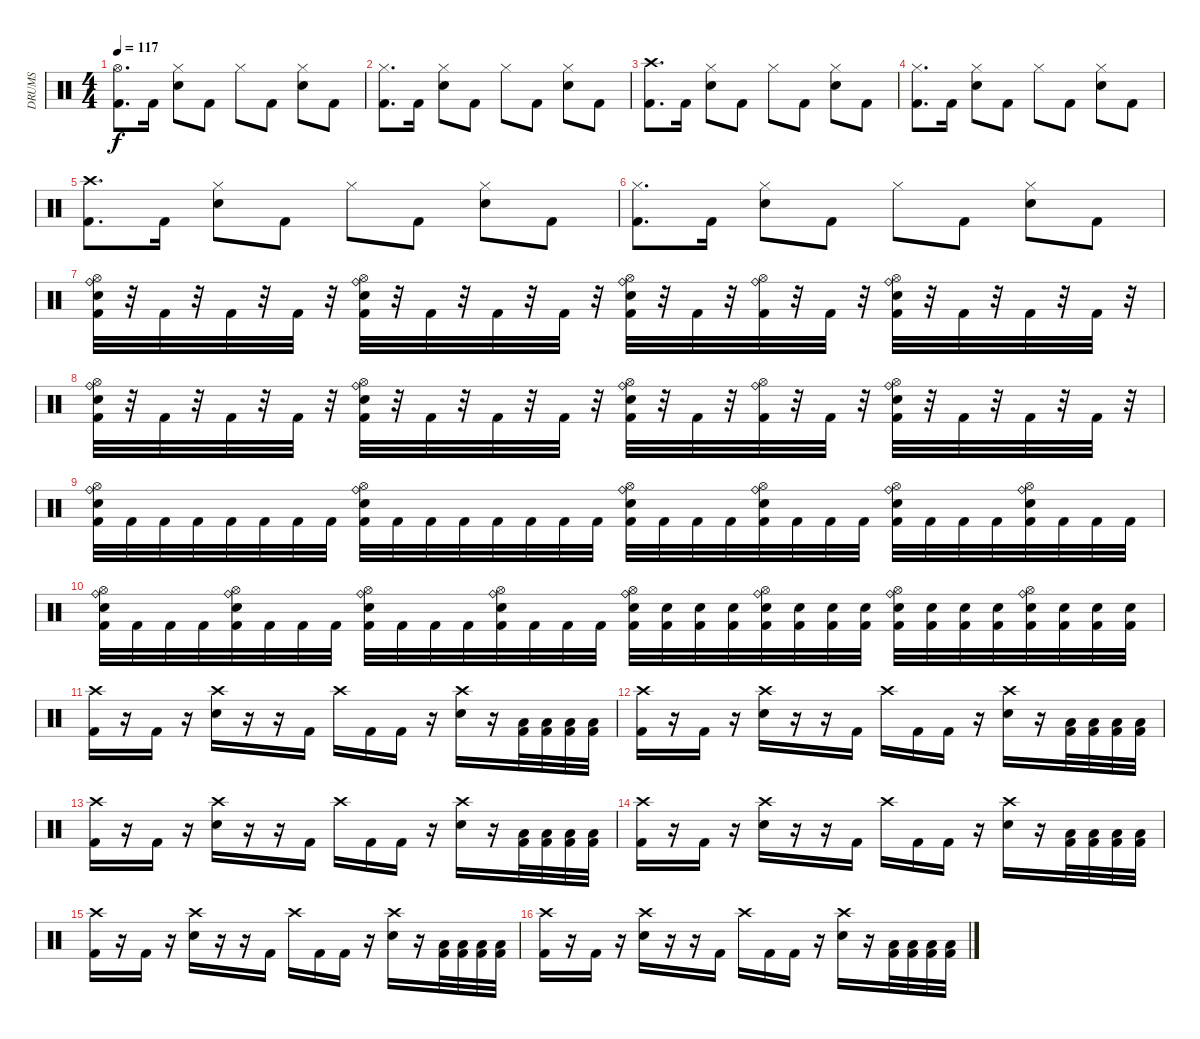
\track ("DRUMS" "DRUMS") {instrument percussion}
\staff {score}
\articulation defaults
\ts (4 4)
\tempo 117
\clef neutral
\ks c
("Kick (hit) 2" "Hi-Hat (open)").8{d dy f} "Kick (hit) 2".16 ("Electric Snare (hit)" "Hi-Hat (closed)").8 "Kick (hit) 2".8 "Hi-Hat (closed)".8 "Kick (hit) 2".8 ("Electric Snare (hit)" "Hi-Hat (closed)").8 "Kick (hit) 2".8 |
("Kick (hit) 2" "Hi-Hat (closed)").8{d} "Kick (hit) 2".16 ("Electric Snare (hit)" "Hi-Hat (closed)").8 "Kick (hit) 2".8 "Hi-Hat (closed)".8 "Kick (hit) 2".8 ("Electric Snare (hit)" "Hi-Hat (closed)").8 "Kick (hit) 2".8 |
("Kick (hit) 2" "Crash high (hit)").8{d} "Kick (hit) 2".16 ("Electric Snare (hit)" "Hi-Hat (closed)").8 "Kick (hit) 2".8 "Hi-Hat (closed)".8 "Kick (hit) 2".8 ("Electric Snare (hit)" "Hi-Hat (closed)").8 "Kick (hit) 2".8 |
("Kick (hit) 2" "Hi-Hat (closed)").8{d} "Kick (hit) 2".16 ("Electric Snare (hit)" "Hi-Hat (closed)").8 "Kick (hit) 2".8 "Hi-Hat (closed)".8 "Kick (hit) 2".8 ("Electric Snare (hit)" "Hi-Hat (closed)").8 "Kick (hit) 2".8 |
("Kick (hit) 2" "Crash high (hit)").8{d} "Kick (hit) 2".16 ("Electric Snare (hit)" "Hi-Hat (closed)").8 "Kick (hit) 2".8 "Hi-Hat (closed)".8 "Kick (hit) 2".8 ("Electric Snare (hit)" "Hi-Hat (closed)").8 "Kick (hit) 2".8 |
("Kick (hit) 2" "Hi-Hat (closed)").8{d} "Kick (hit) 2".16 ("Electric Snare (hit)" "Hi-Hat (closed)").8 "Kick (hit) 2".8 "Hi-Hat (closed)".8 "Kick (hit) 2".8 ("Electric Snare (hit)" "Hi-Hat (closed)").8 "Kick (hit) 2".8 |
("Hi-Hat (open)" "Ride (bell)" "Kick (hit) 2" "Electric Snare (hit)").32 r.32 "Kick (hit) 2".32 r.32 "Kick (hit) 2".32 r.32 "Kick (hit) 2".32 r.32 ("Hi-Hat (open)" "Ride (bell)" "Kick (hit) 2" "Electric Snare (hit)").32 r.32 "Kick (hit) 2".32 r.32 "Kick (hit) 2".32 r.32 "Kick (hit) 2".32 r.32 ("Hi-Hat (open)" "Ride (bell)" "Kick (hit) 2" "Electric Snare (hit)").32 r.32 "Kick (hit) 2".32 r.32 ("Hi-Hat (open)" "Ride (bell)" "Kick (hit) 2").32 r.32 "Kick (hit) 2".32 r.32 ("Hi-Hat (open)" "Ride (bell)" "Kick (hit) 2" "Electric Snare (hit)").32 r.32 "Kick (hit) 2".32 r.32 "Kick (hit) 2".32 r.32 "Kick (hit) 2".32 r.32 |
("Hi-Hat (open)" "Ride (bell)" "Kick (hit) 2" "Electric Snare (hit)").32 r.32 "Kick (hit) 2".32 r.32 "Kick (hit) 2".32 r.32 "Kick (hit) 2".32 r.32 ("Hi-Hat (open)" "Ride (bell)" "Kick (hit) 2" "Electric Snare (hit)").32 r.32 "Kick (hit) 2".32 r.32 "Kick (hit) 2".32 r.32 "Kick (hit) 2".32 r.32 ("Hi-Hat (open)" "Ride (bell)" "Kick (hit) 2" "Electric Snare (hit)").32 r.32 "Kick (hit) 2".32 r.32 ("Hi-Hat (open)" "Ride (bell)" "Kick (hit) 2").32 r.32 "Kick (hit) 2".32 r.32 ("Hi-Hat (open)" "Ride (bell)" "Kick (hit) 2" "Electric Snare (hit)").32 r.32 "Kick (hit) 2".32 r.32 "Kick (hit) 2".32 r.32 "Kick (hit) 2".32 r.32 |
("Hi-Hat (open)" "Ride (bell)" "Kick (hit) 2" "Electric Snare (hit)").32 "Kick (hit) 2".32 "Kick (hit) 2".32 "Kick (hit) 2".32 "Kick (hit) 2".32 "Kick (hit) 2".32 "Kick (hit) 2".32 "Kick (hit) 2".32 ("Hi-Hat (open)" "Ride (bell)" "Kick (hit) 2" "Electric Snare (hit)").32 "Kick (hit) 2".32 "Kick (hit) 2".32 "Kick (hit) 2".32 "Kick (hit) 2".32 "Kick (hit) 2".32 "Kick (hit) 2".32 "Kick (hit) 2".32 ("Hi-Hat (open)" "Ride (bell)" "Kick (hit) 2" "Electric Snare (hit)").32 "Kick (hit) 2".32 "Kick (hit) 2".32 "Kick (hit) 2".32 ("Hi-Hat (open)" "Ride (bell)" "Kick (hit) 2" "Electric Snare (hit)").32 "Kick (hit) 2".32 "Kick (hit) 2".32 "Kick (hit) 2".32 ("Hi-Hat (open)" "Ride (bell)" "Kick (hit) 2" "Electric Snare (hit)").32 "Kick (hit) 2".32 "Kick (hit) 2".32 "Kick (hit) 2".32 ("Hi-Hat (open)" "Ride (bell)" "Kick (hit) 2" "Electric Snare (hit)").32 "Kick (hit) 2".32 "Kick (hit) 2".32 "Kick (hit) 2".32 |
("Hi-Hat (open)" "Ride (bell)" "Kick (hit) 2" "Electric Snare (hit)").32 "Kick (hit) 2".32 "Kick (hit) 2".32 "Kick (hit) 2".32 ("Hi-Hat (open)" "Ride (bell)" "Kick (hit) 2" "Electric Snare (hit)").32 "Kick (hit) 2".32 "Kick (hit) 2".32 "Kick (hit) 2".32 ("Hi-Hat (open)" "Ride (bell)" "Kick (hit) 2" "Electric Snare (hit)").32 "Kick (hit) 2".32 "Kick (hit) 2".32 "Kick (hit) 2".32 ("Hi-Hat (open)" "Ride (bell)" "Kick (hit) 2" "Electric Snare (hit)").32 "Kick (hit) 2".32 "Kick (hit) 2".32 "Kick (hit) 2".32 ("Hi-Hat (open)" "Ride (bell)" "Kick (hit) 2" "Electric Snare (hit)").32 ("Kick (hit) 2" "Electric Snare (hit)").32 ("Kick (hit) 2" "Electric Snare (hit)").32 ("Kick (hit) 2" "Electric Snare (hit)").32 ("Hi-Hat (open)" "Ride (bell)" "Kick (hit) 2" "Electric Snare (hit)").32 ("Kick (hit) 2" "Electric Snare (hit)").32 ("Kick (hit) 2" "Electric Snare (hit)").32 ("Kick (hit) 2" "Electric Snare (hit)").32 ("Hi-Hat (open)" "Ride (bell)" "Kick (hit) 2" "Electric Snare (hit)").32 ("Kick (hit) 2" "Electric Snare (hit)").32 ("Kick (hit) 2" "Electric Snare (hit)").32 ("Kick (hit) 2" "Electric Snare (hit)").32 ("Hi-Hat (open)" "Ride (bell)" "Kick (hit) 2" "Electric Snare (hit)").32 ("Kick (hit) 2" "Electric Snare (hit)").32 ("Kick (hit) 2" "Electric Snare (hit)").32 ("Kick (hit) 2" "Electric Snare (hit)").32 |
("Crash high (hit)" "Kick (hit) 2").16 r.16 "Kick (hit) 2".16 r.16 ("Crash high (hit)" "Electric Snare (hit)").16 r.16 r.16 "Kick (hit) 2".16 "Crash high (hit)".16 "Kick (hit) 2".16 "Kick (hit) 2".16 r.16 ("Crash high (hit)" "Electric Snare (hit)").16 r.16 ("Low Tom (hit)" "Kick (hit) 2").32 ("Low Tom (hit)" "Kick (hit) 2").32 ("Low Tom (hit)" "Kick (hit) 2").32 ("Low Tom (hit)" "Kick (hit) 2").32 |
("Crash high (hit)" "Kick (hit) 2").16 r.16 "Kick (hit) 2".16 r.16 ("Crash high (hit)" "Electric Snare (hit)").16 r.16 r.16 "Kick (hit) 2".16 "Crash high (hit)".16 "Kick (hit) 2".16 "Kick (hit) 2".16 r.16 ("Crash high (hit)" "Electric Snare (hit)").16 r.16 ("Low Tom (hit)" "Kick (hit) 2").32 ("Low Tom (hit)" "Kick (hit) 2").32 ("Low Tom (hit)" "Kick (hit) 2").32 ("Low Tom (hit)" "Kick (hit) 2").32 |
("Crash high (hit)" "Kick (hit) 2").16 r.16 "Kick (hit) 2".16 r.16 ("Crash high (hit)" "Electric Snare (hit)").16 r.16 r.16 "Kick (hit) 2".16 "Crash high (hit)".16 "Kick (hit) 2".16 "Kick (hit) 2".16 r.16 ("Crash high (hit)" "Electric Snare (hit)").16 r.16 ("Low Tom (hit)" "Kick (hit) 2").32 ("Low Tom (hit)" "Kick (hit) 2").32 ("Low Tom (hit)" "Kick (hit) 2").32 ("Low Tom (hit)" "Kick (hit) 2").32 |
("Crash high (hit)" "Kick (hit) 2").16 r.16 "Kick (hit) 2".16 r.16 ("Crash high (hit)" "Electric Snare (hit)").16 r.16 r.16 "Kick (hit) 2".16 "Crash high (hit)".16 "Kick (hit) 2".16 "Kick (hit) 2".16 r.16 ("Crash high (hit)" "Electric Snare (hit)").16 r.16 ("Low Tom (hit)" "Kick (hit) 2").32 ("Low Tom (hit)" "Kick (hit) 2").32 ("Low Tom (hit)" "Kick (hit) 2").32 ("Low Tom (hit)" "Kick (hit) 2").32 |
("Crash high (hit)" "Kick (hit) 2").16 r.16 "Kick (hit) 2".16 r.16 ("Crash high (hit)" "Electric Snare (hit)").16 r.16 r.16 "Kick (hit) 2".16 "Crash high (hit)".16 "Kick (hit) 2".16 "Kick (hit) 2".16 r.16 ("Crash high (hit)" "Electric Snare (hit)").16 r.16 ("Low Tom (hit)" "Kick (hit) 2").32 ("Low Tom (hit)" "Kick (hit) 2").32 ("Low Tom (hit)" "Kick (hit) 2").32 ("Low Tom (hit)" "Kick (hit) 2").32 |
("Crash high (hit)" "Kick (hit) 2").16 r.16 "Kick (hit) 2".16 r.16 ("Crash high (hit)" "Electric Snare (hit)").16 r.16 r.16 "Kick (hit) 2".16 "Crash high (hit)".16 "Kick (hit) 2".16 "Kick (hit) 2".16 r.16 ("Crash high (hit)" "Electric Snare (hit)").16 r.16 ("Low Tom (hit)" "Kick (hit) 2").32 ("Low Tom (hit)" "Kick (hit) 2").32 ("Low Tom (hit)" "Kick (hit) 2").32 ("Low Tom (hit)" "Kick (hit) 2").32
